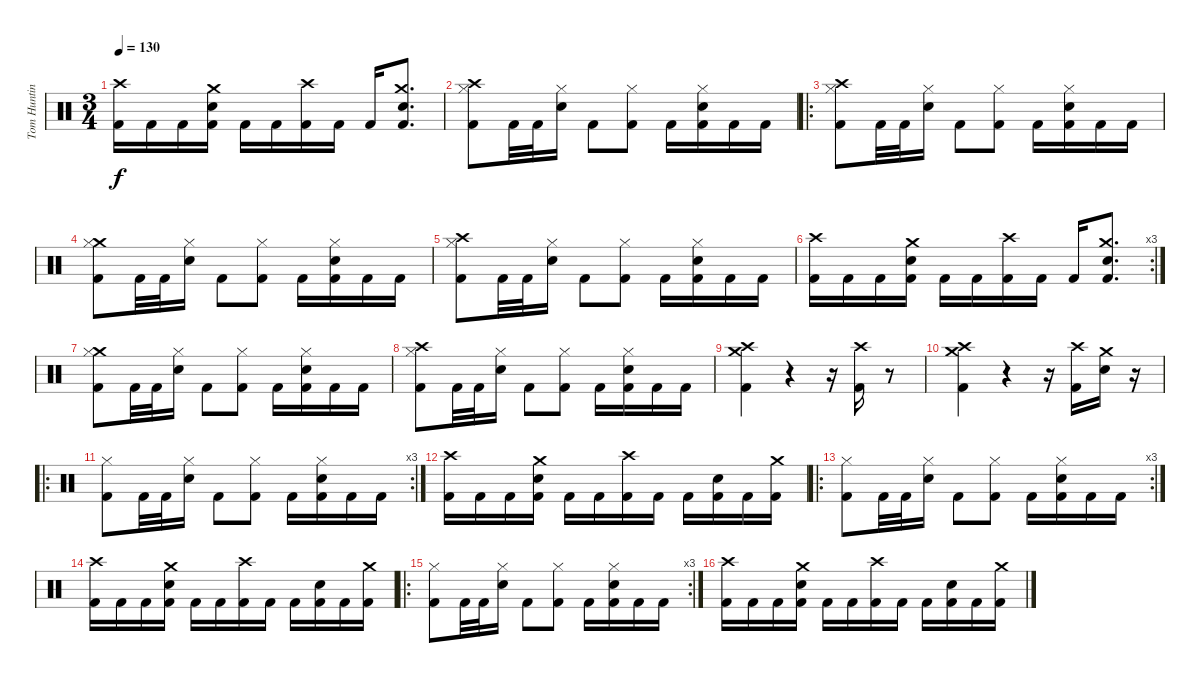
\track ("Tom Hunting" "Tom Huntin") {instrument percussion}
\staff {score}
\articulation defaults
\ts (3 4)
\tempo 130
\clef neutral
\ks c
("Crash high (hit)" "Kick (hit) 2").16{dy f} "Kick (hit) 2".16 "Kick (hit) 2".16 ("Crash medium (hit)" "Electric Snare (hit)" "Kick (hit) 2").16 "Kick (hit) 2".16 "Kick (hit) 2".16 ("Crash high (hit)" "Kick (hit) 2").16 "Kick (hit) 2".16 "Kick (hit) 2".16 ("Crash medium (hit)" "Electric Snare (hit)" "Kick (hit) 2").8{d} |
("Crash high (hit)" "Hi-Hat (closed)" "Kick (hit) 2").8 "Kick (hit) 2".32 "Kick (hit) 2".32 ("Hi-Hat (closed)" "Electric Snare (hit)").16 "Kick (hit) 2".8 ("Hi-Hat (closed)" "Kick (hit) 2").8 "Kick (hit) 2".16 ("Hi-Hat (closed)" "Electric Snare (hit)" "Kick (hit) 2").16 "Kick (hit) 2".16 "Kick (hit) 2".16 |
\ro
("Crash high (hit)" "Hi-Hat (closed)" "Kick (hit) 2").8 "Kick (hit) 2".32 "Kick (hit) 2".32 ("Hi-Hat (closed)" "Electric Snare (hit)").16 "Kick (hit) 2".8 ("Hi-Hat (closed)" "Kick (hit) 2").8 "Kick (hit) 2".16 ("Hi-Hat (closed)" "Electric Snare (hit)" "Kick (hit) 2").16 "Kick (hit) 2".16 "Kick (hit) 2".16 |
("Crash medium (hit)" "Hi-Hat (closed)" "Kick (hit) 2").8 "Kick (hit) 2".32 "Kick (hit) 2".32 ("Hi-Hat (closed)" "Electric Snare (hit)").16 "Kick (hit) 2".8 ("Hi-Hat (closed)" "Kick (hit) 2").8 "Kick (hit) 2".16 ("Hi-Hat (closed)" "Electric Snare (hit)" "Kick (hit) 2").16 "Kick (hit) 2".16 "Kick (hit) 2".16 |
("Crash high (hit)" "Hi-Hat (closed)" "Kick (hit) 2").8 "Kick (hit) 2".32 "Kick (hit) 2".32 ("Hi-Hat (closed)" "Electric Snare (hit)").16 "Kick (hit) 2".8 ("Hi-Hat (closed)" "Kick (hit) 2").8 "Kick (hit) 2".16 ("Hi-Hat (closed)" "Electric Snare (hit)" "Kick (hit) 2").16 "Kick (hit) 2".16 "Kick (hit) 2".16 |
\rc 3
("Crash high (hit)" "Kick (hit) 2").16 "Kick (hit) 2".16 "Kick (hit) 2".16 ("Crash medium (hit)" "Electric Snare (hit)" "Kick (hit) 2").16 "Kick (hit) 2".16 "Kick (hit) 2".16 ("Crash high (hit)" "Kick (hit) 2").16 "Kick (hit) 2".16 "Kick (hit) 2".16 ("Crash medium (hit)" "Electric Snare (hit)" "Kick (hit) 2").8{d} |
("Crash medium (hit)" "Hi-Hat (closed)" "Kick (hit) 2").8 "Kick (hit) 2".32 "Kick (hit) 2".32 ("Hi-Hat (closed)" "Electric Snare (hit)").16 "Kick (hit) 2".8 ("Hi-Hat (closed)" "Kick (hit) 2").8 "Kick (hit) 2".16 ("Hi-Hat (closed)" "Electric Snare (hit)" "Kick (hit) 2").16 "Kick (hit) 2".16 "Kick (hit) 2".16 |
("Crash high (hit)" "Hi-Hat (closed)" "Kick (hit) 2").8 "Kick (hit) 2".32 "Kick (hit) 2".32 ("Hi-Hat (closed)" "Electric Snare (hit)").16 "Kick (hit) 2".8 ("Hi-Hat (closed)" "Kick (hit) 2").8 "Kick (hit) 2".16 ("Hi-Hat (closed)" "Electric Snare (hit)" "Kick (hit) 2").16 "Kick (hit) 2".16 "Kick (hit) 2".16 |
("Crash medium (hit)" "Crash high (hit)" "Kick (hit) 2").4 r.4 r.16 ("Crash high (hit)" "Kick (hit) 2").16 r.8 |
("Crash medium (hit)" "Crash high (hit)" "Kick (hit) 2").4 r.4 r.16 ("Crash high (hit)" "Kick (hit) 2").16 ("Crash medium (hit)" "Electric Snare (hit)").16 r.16 |
\ro
\rc 3
("Hi-Hat (closed)" "Kick (hit) 2").8 "Kick (hit) 2".32 "Kick (hit) 2".32 ("Hi-Hat (closed)" "Electric Snare (hit)").16 "Kick (hit) 2".8 ("Hi-Hat (closed)" "Kick (hit) 2").8 "Kick (hit) 2".16 ("Hi-Hat (closed)" "Electric Snare (hit)" "Kick (hit) 2").16 "Kick (hit) 2".16 "Kick (hit) 2".16 |
("Crash high (hit)" "Kick (hit) 2").16 "Kick (hit) 2".16 "Kick (hit) 2".16 ("Crash medium (hit)" "Electric Snare (hit)" "Kick (hit) 2").16 "Kick (hit) 2".16 "Kick (hit) 2".16 ("Crash high (hit)" "Kick (hit) 2").16 "Kick (hit) 2".16 "Kick (hit) 2".16 ("Electric Snare (hit)" "Kick (hit) 2").16 "Kick (hit) 2".16 ("Crash medium (hit)" "Kick (hit) 2").16 |
\ro
\rc 3
("Hi-Hat (closed)" "Kick (hit) 2").8 "Kick (hit) 2".32 "Kick (hit) 2".32 ("Hi-Hat (closed)" "Electric Snare (hit)").16 "Kick (hit) 2".8 ("Hi-Hat (closed)" "Kick (hit) 2").8 "Kick (hit) 2".16 ("Hi-Hat (closed)" "Electric Snare (hit)" "Kick (hit) 2").16 "Kick (hit) 2".16 "Kick (hit) 2".16 |
("Crash high (hit)" "Kick (hit) 2").16 "Kick (hit) 2".16 "Kick (hit) 2".16 ("Crash medium (hit)" "Electric Snare (hit)" "Kick (hit) 2").16 "Kick (hit) 2".16 "Kick (hit) 2".16 ("Crash high (hit)" "Kick (hit) 2").16 "Kick (hit) 2".16 "Kick (hit) 2".16 ("Electric Snare (hit)" "Kick (hit) 2").16 "Kick (hit) 2".16 ("Crash medium (hit)" "Kick (hit) 2").16 |
\ro
\rc 3
("Hi-Hat (closed)" "Kick (hit) 2").8 "Kick (hit) 2".32 "Kick (hit) 2".32 ("Hi-Hat (closed)" "Electric Snare (hit)").16 "Kick (hit) 2".8 ("Hi-Hat (closed)" "Kick (hit) 2").8 "Kick (hit) 2".16 ("Hi-Hat (closed)" "Electric Snare (hit)" "Kick (hit) 2").16 "Kick (hit) 2".16 "Kick (hit) 2".16 |
("Crash high (hit)" "Kick (hit) 2").16 "Kick (hit) 2".16 "Kick (hit) 2".16 ("Crash medium (hit)" "Electric Snare (hit)" "Kick (hit) 2").16 "Kick (hit) 2".16 "Kick (hit) 2".16 ("Crash high (hit)" "Kick (hit) 2").16 "Kick (hit) 2".16 "Kick (hit) 2".16 ("Electric Snare (hit)" "Kick (hit) 2").16 "Kick (hit) 2".16 ("Crash medium (hit)" "Kick (hit) 2").16
